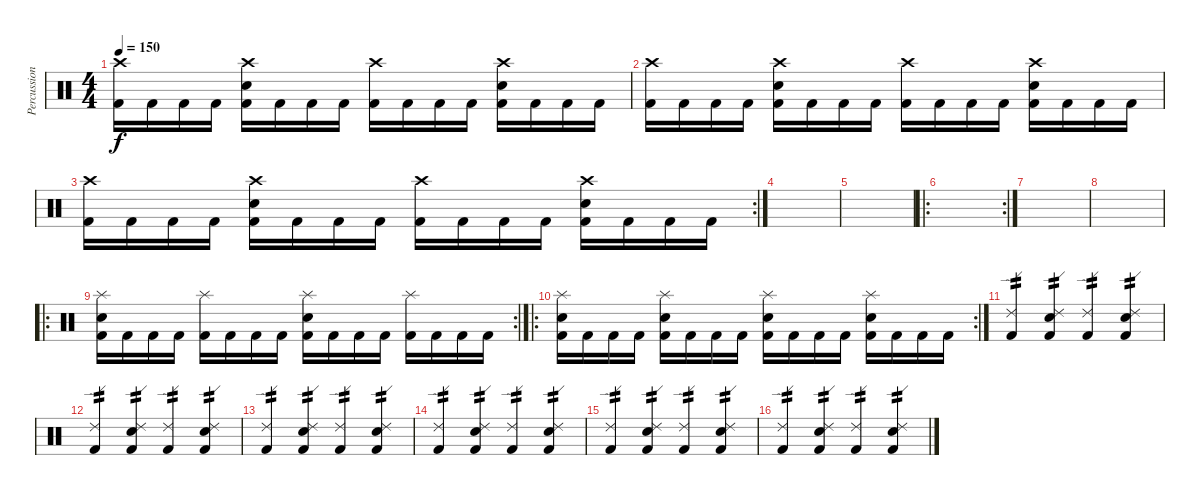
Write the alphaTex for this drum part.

\track ("Percussion" "Percussion") {instrument percussion}
\staff {score}
\articulation defaults
\ts (4 4)
\tempo 150
\clef neutral
\ks c
("Crash high (hit)" "Kick (hit) 2").16{dy f} "Kick (hit) 2".16 "Kick (hit) 2".16 "Kick (hit) 2".16 ("Crash high (hit)" "Snare (hit) 2" "Kick (hit) 2").16 "Kick (hit) 2".16 "Kick (hit) 2".16 "Kick (hit) 2".16 ("Crash high (hit)" "Kick (hit) 2").16 "Kick (hit) 2".16 "Kick (hit) 2".16 "Kick (hit) 2".16 ("Crash high (hit)" "Snare (hit) 2" "Kick (hit) 2").16 "Kick (hit) 2".16 "Kick (hit) 2".16 "Kick (hit) 2".16 |
("Crash high (hit)" "Kick (hit) 2").16 "Kick (hit) 2".16 "Kick (hit) 2".16 "Kick (hit) 2".16 ("Crash high (hit)" "Snare (hit) 2" "Kick (hit) 2").16 "Kick (hit) 2".16 "Kick (hit) 2".16 "Kick (hit) 2".16 ("Crash high (hit)" "Kick (hit) 2").16 "Kick (hit) 2".16 "Kick (hit) 2".16 "Kick (hit) 2".16 ("Crash high (hit)" "Snare (hit) 2" "Kick (hit) 2").16 "Kick (hit) 2".16 "Kick (hit) 2".16 "Kick (hit) 2".16 |
\rc 2
("Crash high (hit)" "Kick (hit) 2").16 "Kick (hit) 2".16 "Kick (hit) 2".16 "Kick (hit) 2".16 ("Crash high (hit)" "Snare (hit) 2" "Kick (hit) 2").16 "Kick (hit) 2".16 "Kick (hit) 2".16 "Kick (hit) 2".16 ("Crash high (hit)" "Kick (hit) 2").16 "Kick (hit) 2".16 "Kick (hit) 2".16 "Kick (hit) 2".16 ("Crash high (hit)" "Snare (hit) 2" "Kick (hit) 2").16 "Kick (hit) 2".16 "Kick (hit) 2".16 "Kick (hit) 2".16 |
|
|
\ro
\rc 2
|
|
|
\ro
\rc 2
("Splash (hit)" "Snare (hit) 2" "Kick (hit) 2").16 "Kick (hit) 2".16 "Kick (hit) 2".16 "Kick (hit) 2".16 ("Splash (hit)" "Kick (hit) 2").16 "Kick (hit) 2".16 "Kick (hit) 2".16 "Kick (hit) 2".16 ("Splash (hit)" "Snare (hit) 2" "Kick (hit) 2").16 "Kick (hit) 2".16 "Kick (hit) 2".16 "Kick (hit) 2".16 ("Splash (hit)" "Kick (hit) 2").16 "Kick (hit) 2".16 "Kick (hit) 2".16 "Kick (hit) 2".16 |
\ro
\rc 2
("Splash (hit)" "Snare (hit) 2" "Kick (hit) 2").16 "Kick (hit) 2".16 "Kick (hit) 2".16 "Kick (hit) 2".16 ("Splash (hit)" "Snare (hit) 2" "Kick (hit) 2").16 "Kick (hit) 2".16 "Kick (hit) 2".16 "Kick (hit) 2".16 ("Splash (hit)" "Snare (hit) 2" "Kick (hit) 2").16 "Kick (hit) 2".16 "Kick (hit) 2".16 "Kick (hit) 2".16 ("Splash (hit)" "Snare (hit) 2" "Kick (hit) 2").16 "Kick (hit) 2".16 "Kick (hit) 2".16 "Kick (hit) 2".16 |
("Ride (edge) 2" "Kick (hit) 2").4{tp 2} ("Ride (edge) 2" "Snare (hit) 2" "Kick (hit) 2").4{tp 2} ("Ride (edge) 2" "Kick (hit) 2").4{tp 2} ("Ride (edge) 2" "Snare (hit) 2" "Kick (hit) 2").4{tp 2} |
("Ride (edge) 2" "Kick (hit) 2").4{tp 2} ("Ride (edge) 2" "Snare (hit) 2" "Kick (hit) 2").4{tp 2} ("Ride (edge) 2" "Kick (hit) 2").4{tp 2} ("Ride (edge) 2" "Snare (hit) 2" "Kick (hit) 2").4{tp 2} |
("Ride (edge) 2" "Kick (hit) 2").4{tp 2} ("Ride (edge) 2" "Snare (hit) 2" "Kick (hit) 2").4{tp 2} ("Ride (edge) 2" "Kick (hit) 2").4{tp 2} ("Ride (edge) 2" "Snare (hit) 2" "Kick (hit) 2").4{tp 2} |
("Ride (edge) 2" "Kick (hit) 2").4{tp 2} ("Ride (edge) 2" "Snare (hit) 2" "Kick (hit) 2").4{tp 2} ("Ride (edge) 2" "Kick (hit) 2").4{tp 2} ("Ride (edge) 2" "Snare (hit) 2" "Kick (hit) 2").4{tp 2} |
("Ride (edge) 2" "Kick (hit) 2").4{tp 2} ("Ride (edge) 2" "Snare (hit) 2" "Kick (hit) 2").4{tp 2} ("Ride (edge) 2" "Kick (hit) 2").4{tp 2} ("Ride (edge) 2" "Snare (hit) 2" "Kick (hit) 2").4{tp 2} |
("Ride (edge) 2" "Kick (hit) 2").4{tp 2} ("Ride (edge) 2" "Snare (hit) 2" "Kick (hit) 2").4{tp 2} ("Ride (edge) 2" "Kick (hit) 2").4{tp 2} ("Ride (edge) 2" "Snare (hit) 2" "Kick (hit) 2").4{tp 2}
